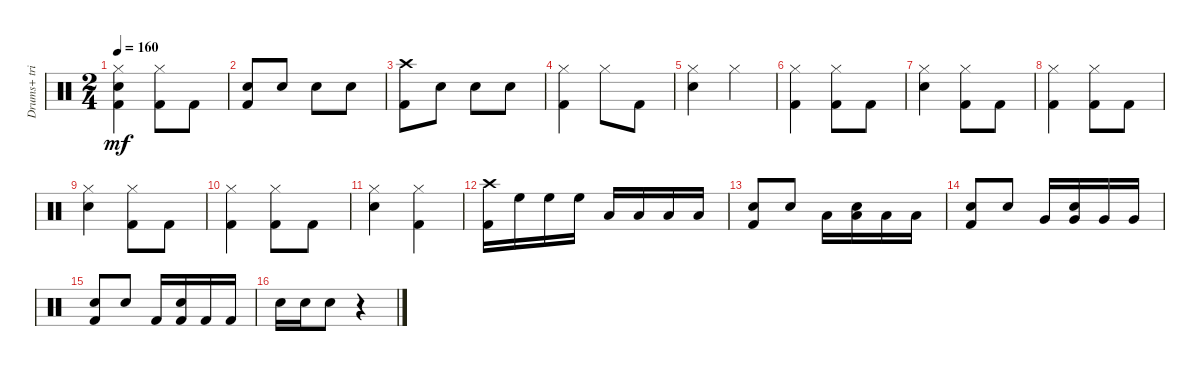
\track ("Drums+ triangle" "Drums+ tri") {instrument percussion}
\staff {score}
\articulation defaults
\ts (2 4)
\tempo 160
\clef neutral
\ks c
("Kick (hit) 2" "Snare (hit) 2" "Hi-Hat (closed)").4{dy mf} ("Kick (hit) 2" "Hi-Hat (closed)").8 "Kick (hit) 2".8 |
("Kick (hit) 2" "Snare (hit) 2").8 "Snare (hit) 2".8 "Snare (hit) 2".8 "Snare (hit) 2".8 |
("Kick (hit) 2" "Crash high (hit)").8 "Snare (hit) 2".8 "Snare (hit) 2".8 "Snare (hit) 2".8 |
("Kick (hit) 2" "Hi-Hat (closed)").4 "Hi-Hat (closed)".8 "Kick (hit) 2".8 |
("Hi-Hat (closed)" "Snare (hit) 2").4 "Hi-Hat (closed)".4 |
("Hi-Hat (closed)" "Kick (hit) 2").4 ("Hi-Hat (closed)" "Kick (hit) 2").8 "Kick (hit) 2".8 |
("Hi-Hat (closed)" "Snare (hit) 2").4 ("Hi-Hat (closed)" "Kick (hit) 2").8 "Kick (hit) 2".8 |
("Hi-Hat (closed)" "Kick (hit) 2").4 ("Hi-Hat (closed)" "Kick (hit) 2").8 "Kick (hit) 2".8 |
("Hi-Hat (closed)" "Snare (hit) 2").4 ("Hi-Hat (closed)" "Kick (hit) 2").8 "Kick (hit) 2".8 |
("Hi-Hat (closed)" "Kick (hit) 2").4 ("Hi-Hat (closed)" "Kick (hit) 2").8 "Kick (hit) 2".8 |
("Hi-Hat (closed)" "Snare (hit) 2").4 ("Hi-Hat (closed)" "Kick (hit) 2").4 |
("Kick (hit) 2" "Crash high (hit)").16 "High Floor Tom (hit)".16 "High Floor Tom (hit)".16 "High Floor Tom (hit)".16 "Low Tom (hit)".16 "Low Tom (hit)".16 "Low Tom (hit)".16 "Low Tom (hit)".16 |
("Kick (hit) 2" "Snare (hit) 2").8 "Snare (hit) 2".8 "Low Tom (hit)".16 ("Low Tom (hit)" "Snare (hit) 2").16 "Low Tom (hit)".16 "Low Tom (hit)".16 |
("Kick (hit) 2" "Snare (hit) 2").8 "Snare (hit) 2".8 "Very Low Tom (hit)".16 ("Very Low Tom (hit)" "Snare (hit) 2").16 "Very Low Tom (hit)".16 "Very Low Tom (hit)".16 |
("Kick (hit) 2" "Snare (hit) 2").8 "Snare (hit) 2".8 "Kick (hit) 2".16 ("Kick (hit) 2" "Snare (hit) 2").16 "Kick (hit) 2".16 "Kick (hit) 2".16 |
"Snare (hit) 2".16 "Snare (hit) 2".16 "Snare (hit) 2".8 r.4
